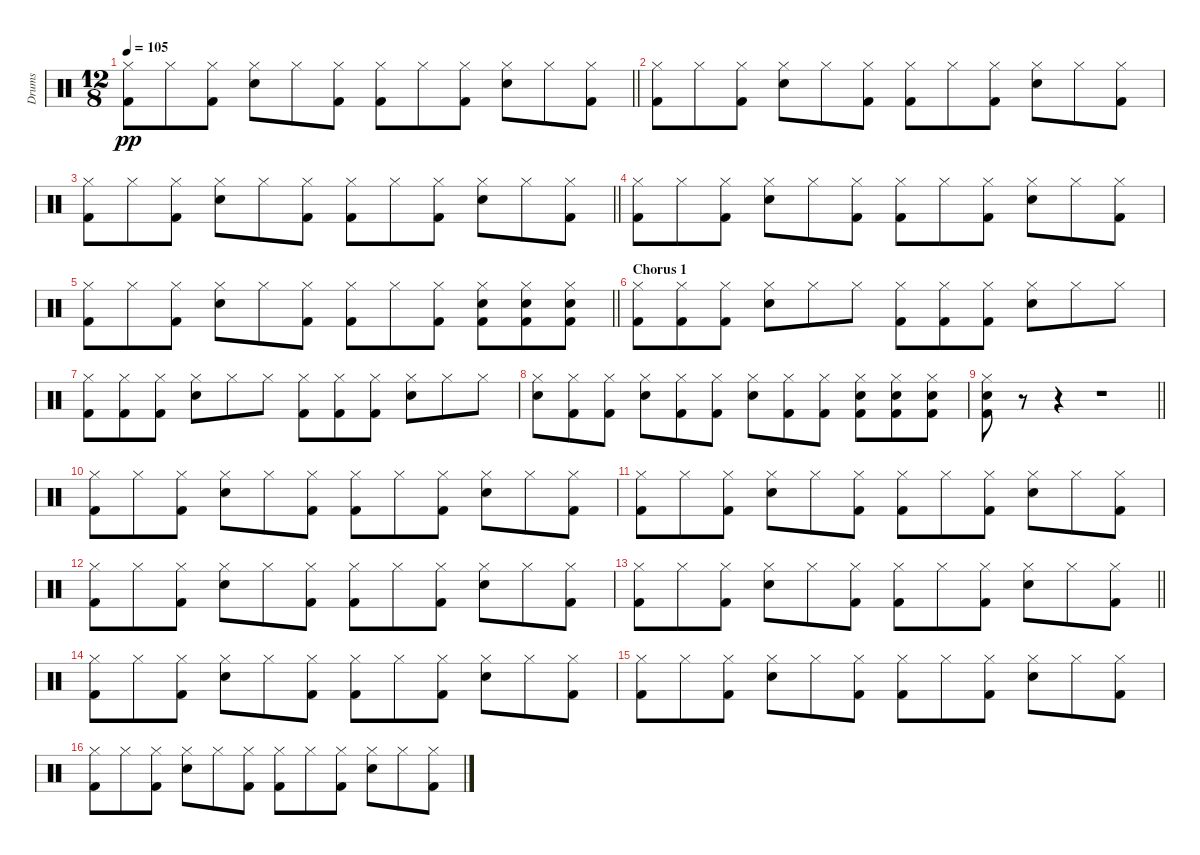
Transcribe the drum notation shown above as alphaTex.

\track ("Drums" "Drums") {instrument percussion}
\staff
\articulation defaults
\ts (12 8)
\tempo 105
\clef neutral
\barLineRight lightlight
\ks c
("Hi-Hat (closed)" "Kick (hit) 2").8{dy pp} "Hi-Hat (closed)".8 ("Hi-Hat (closed)" "Kick (hit) 2").8 ("Hi-Hat (closed)" "Snare (hit) 2").8 "Hi-Hat (closed)".8 ("Hi-Hat (closed)" "Kick (hit) 2").8 ("Hi-Hat (closed)" "Kick (hit) 2").8 "Hi-Hat (closed)".8 ("Hi-Hat (closed)" "Kick (hit) 2").8 ("Hi-Hat (closed)" "Snare (hit) 2").8 "Hi-Hat (closed)".8 ("Hi-Hat (closed)" "Kick (hit) 2").8 |
("Hi-Hat (closed)" "Kick (hit) 2").8 "Hi-Hat (closed)".8 ("Hi-Hat (closed)" "Kick (hit) 2").8 ("Hi-Hat (closed)" "Snare (hit) 2").8 "Hi-Hat (closed)".8 ("Hi-Hat (closed)" "Kick (hit) 2").8 ("Hi-Hat (closed)" "Kick (hit) 2").8 "Hi-Hat (closed)".8 ("Hi-Hat (closed)" "Kick (hit) 2").8 ("Hi-Hat (closed)" "Snare (hit) 2").8 "Hi-Hat (closed)".8 ("Hi-Hat (closed)" "Kick (hit) 2").8 |
\barLineRight lightlight
("Hi-Hat (closed)" "Kick (hit) 2").8 "Hi-Hat (closed)".8 ("Hi-Hat (closed)" "Kick (hit) 2").8 ("Hi-Hat (closed)" "Snare (hit) 2").8 "Hi-Hat (closed)".8 ("Hi-Hat (closed)" "Kick (hit) 2").8 ("Hi-Hat (closed)" "Kick (hit) 2").8 "Hi-Hat (closed)".8 ("Hi-Hat (closed)" "Kick (hit) 2").8 ("Hi-Hat (closed)" "Snare (hit) 2").8 "Hi-Hat (closed)".8 ("Hi-Hat (closed)" "Kick (hit) 2").8 |
("Hi-Hat (closed)" "Kick (hit) 2").8 "Hi-Hat (closed)".8 ("Hi-Hat (closed)" "Kick (hit) 2").8 ("Hi-Hat (closed)" "Snare (hit) 2").8 "Hi-Hat (closed)".8 ("Hi-Hat (closed)" "Kick (hit) 2").8 ("Hi-Hat (closed)" "Kick (hit) 2").8 "Hi-Hat (closed)".8 ("Hi-Hat (closed)" "Kick (hit) 2").8 ("Hi-Hat (closed)" "Snare (hit) 2").8 "Hi-Hat (closed)".8 ("Hi-Hat (closed)" "Kick (hit) 2").8 |
\barLineRight lightlight
("Hi-Hat (closed)" "Kick (hit) 2").8 "Hi-Hat (closed)".8 ("Hi-Hat (closed)" "Kick (hit) 2").8 ("Hi-Hat (closed)" "Snare (hit) 2").8 "Hi-Hat (closed)".8 ("Hi-Hat (closed)" "Kick (hit) 2").8 ("Hi-Hat (closed)" "Kick (hit) 2").8 "Hi-Hat (closed)".8 ("Hi-Hat (closed)" "Kick (hit) 2").8 ("Hi-Hat (closed)" "Snare (hit) 2" "Kick (hit) 2").8 ("Hi-Hat (closed)" "Snare (hit) 2" "Kick (hit) 2").8 ("Hi-Hat (closed)" "Snare (hit) 2" "Kick (hit) 2").8 |
\section ("" "Chorus 1")
("Hi-Hat (closed)" "Kick (hit) 2").8 ("Hi-Hat (closed)" "Kick (hit) 2").8 ("Hi-Hat (closed)" "Kick (hit) 2").8 ("Hi-Hat (closed)" "Snare (hit) 2").8 "Hi-Hat (closed)".8 "Hi-Hat (closed)".8 ("Hi-Hat (closed)" "Kick (hit) 2").8 ("Hi-Hat (closed)" "Kick (hit) 2").8 ("Hi-Hat (closed)" "Kick (hit) 2").8 ("Hi-Hat (closed)" "Snare (hit) 2").8 "Hi-Hat (closed)".8 "Hi-Hat (closed)".8 |
("Hi-Hat (closed)" "Kick (hit) 2").8 ("Hi-Hat (closed)" "Kick (hit) 2").8 ("Hi-Hat (closed)" "Kick (hit) 2").8 ("Hi-Hat (closed)" "Snare (hit) 2").8 "Hi-Hat (closed)".8 "Hi-Hat (closed)".8 ("Hi-Hat (closed)" "Kick (hit) 2").8 ("Hi-Hat (closed)" "Kick (hit) 2").8 ("Hi-Hat (closed)" "Kick (hit) 2").8 ("Hi-Hat (closed)" "Snare (hit) 2").8 "Hi-Hat (closed)".8 "Hi-Hat (closed)".8 |
("Hi-Hat (closed)" "Snare (hit) 2").8 ("Hi-Hat (closed)" "Kick (hit) 2").8 ("Hi-Hat (closed)" "Kick (hit) 2").8 ("Hi-Hat (closed)" "Snare (hit) 2").8 ("Hi-Hat (closed)" "Kick (hit) 2").8 ("Hi-Hat (closed)" "Kick (hit) 2").8 ("Hi-Hat (closed)" "Snare (hit) 2").8 ("Hi-Hat (closed)" "Kick (hit) 2").8 ("Hi-Hat (closed)" "Kick (hit) 2").8 ("Hi-Hat (closed)" "Snare (hit) 2" "Kick (hit) 2").8 ("Hi-Hat (closed)" "Snare (hit) 2" "Kick (hit) 2").8 ("Hi-Hat (closed)" "Snare (hit) 2" "Kick (hit) 2").8 |
\barLineRight lightlight
("Hi-Hat (closed)" "Snare (hit) 2" "Kick (hit) 2").8 r.8 r.4 r.1 |
("Hi-Hat (closed)" "Kick (hit) 2").8 "Hi-Hat (closed)".8 ("Hi-Hat (closed)" "Kick (hit) 2").8 ("Hi-Hat (closed)" "Snare (hit) 2").8 "Hi-Hat (closed)".8 ("Hi-Hat (closed)" "Kick (hit) 2").8 ("Hi-Hat (closed)" "Kick (hit) 2").8 "Hi-Hat (closed)".8 ("Hi-Hat (closed)" "Kick (hit) 2").8 ("Hi-Hat (closed)" "Snare (hit) 2").8 "Hi-Hat (closed)".8 ("Hi-Hat (closed)" "Kick (hit) 2").8 |
("Hi-Hat (closed)" "Kick (hit) 2").8 "Hi-Hat (closed)".8 ("Hi-Hat (closed)" "Kick (hit) 2").8 ("Hi-Hat (closed)" "Snare (hit) 2").8 "Hi-Hat (closed)".8 ("Hi-Hat (closed)" "Kick (hit) 2").8 ("Hi-Hat (closed)" "Kick (hit) 2").8 "Hi-Hat (closed)".8 ("Hi-Hat (closed)" "Kick (hit) 2").8 ("Hi-Hat (closed)" "Snare (hit) 2").8 "Hi-Hat (closed)".8 ("Hi-Hat (closed)" "Kick (hit) 2").8 |
("Hi-Hat (closed)" "Kick (hit) 2").8 "Hi-Hat (closed)".8 ("Hi-Hat (closed)" "Kick (hit) 2").8 ("Hi-Hat (closed)" "Snare (hit) 2").8 "Hi-Hat (closed)".8 ("Hi-Hat (closed)" "Kick (hit) 2").8 ("Hi-Hat (closed)" "Kick (hit) 2").8 "Hi-Hat (closed)".8 ("Hi-Hat (closed)" "Kick (hit) 2").8 ("Hi-Hat (closed)" "Snare (hit) 2").8 "Hi-Hat (closed)".8 ("Hi-Hat (closed)" "Kick (hit) 2").8 |
\barLineRight lightlight
("Hi-Hat (closed)" "Kick (hit) 2").8 "Hi-Hat (closed)".8 ("Hi-Hat (closed)" "Kick (hit) 2").8 ("Hi-Hat (closed)" "Snare (hit) 2").8 "Hi-Hat (closed)".8 ("Hi-Hat (closed)" "Kick (hit) 2").8 ("Hi-Hat (closed)" "Kick (hit) 2").8 "Hi-Hat (closed)".8 ("Hi-Hat (closed)" "Kick (hit) 2").8 ("Hi-Hat (closed)" "Snare (hit) 2").8 "Hi-Hat (closed)".8 ("Hi-Hat (closed)" "Kick (hit) 2").8 |
("Hi-Hat (closed)" "Kick (hit) 2").8 "Hi-Hat (closed)".8 ("Hi-Hat (closed)" "Kick (hit) 2").8 ("Hi-Hat (closed)" "Snare (hit) 2").8 "Hi-Hat (closed)".8 ("Hi-Hat (closed)" "Kick (hit) 2").8 ("Hi-Hat (closed)" "Kick (hit) 2").8 "Hi-Hat (closed)".8 ("Hi-Hat (closed)" "Kick (hit) 2").8 ("Hi-Hat (closed)" "Snare (hit) 2").8 "Hi-Hat (closed)".8 ("Hi-Hat (closed)" "Kick (hit) 2").8 |
("Hi-Hat (closed)" "Kick (hit) 2").8 "Hi-Hat (closed)".8 ("Hi-Hat (closed)" "Kick (hit) 2").8 ("Hi-Hat (closed)" "Snare (hit) 2").8 "Hi-Hat (closed)".8 ("Hi-Hat (closed)" "Kick (hit) 2").8 ("Hi-Hat (closed)" "Kick (hit) 2").8 "Hi-Hat (closed)".8 ("Hi-Hat (closed)" "Kick (hit) 2").8 ("Hi-Hat (closed)" "Snare (hit) 2").8 "Hi-Hat (closed)".8 ("Hi-Hat (closed)" "Kick (hit) 2").8 |
("Hi-Hat (closed)" "Kick (hit) 2").8 "Hi-Hat (closed)".8 ("Hi-Hat (closed)" "Kick (hit) 2").8 ("Hi-Hat (closed)" "Snare (hit) 2").8 "Hi-Hat (closed)".8 ("Hi-Hat (closed)" "Kick (hit) 2").8 ("Hi-Hat (closed)" "Kick (hit) 2").8 "Hi-Hat (closed)".8 ("Hi-Hat (closed)" "Kick (hit) 2").8 ("Hi-Hat (closed)" "Snare (hit) 2").8 "Hi-Hat (closed)".8 ("Hi-Hat (closed)" "Kick (hit) 2").8
